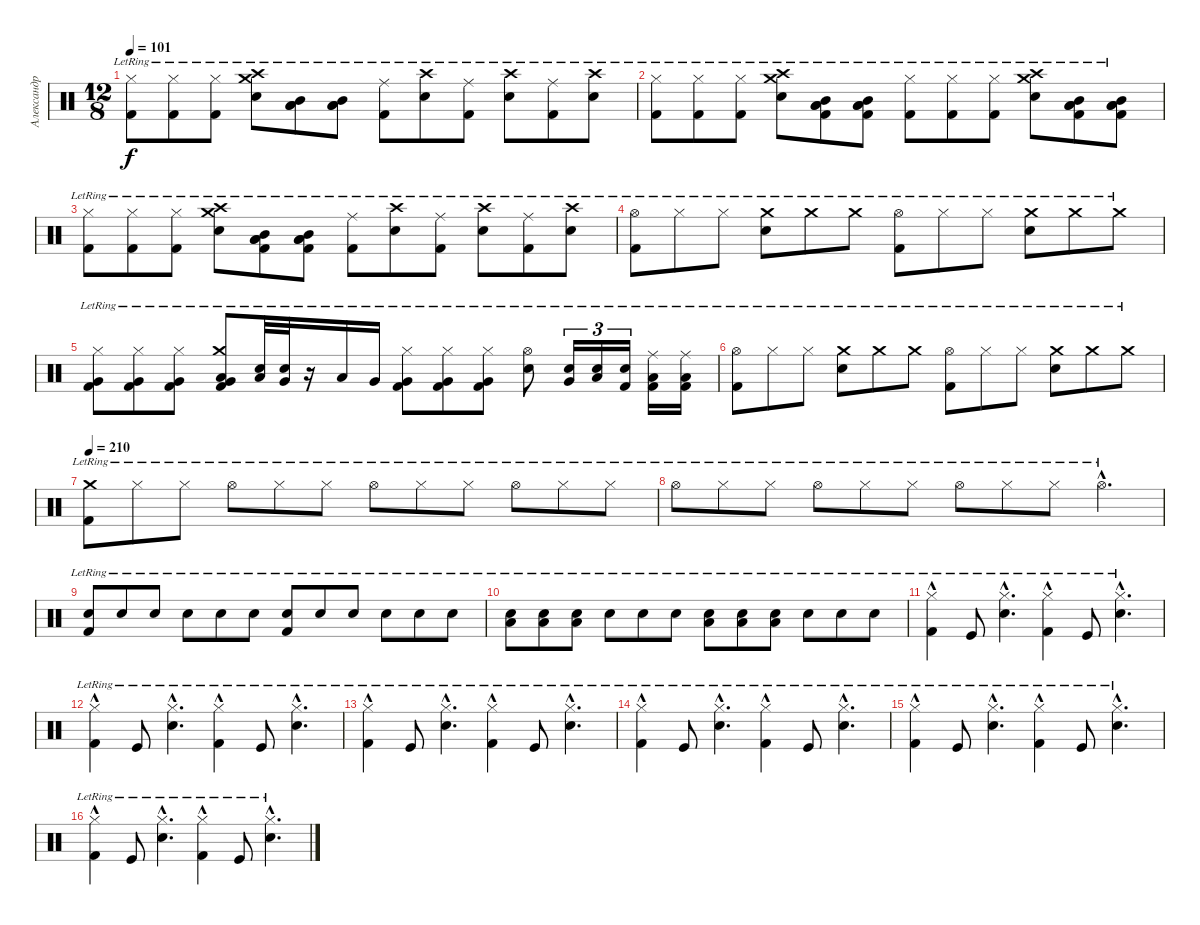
\track ("Александр Манякин" "Александр ") {instrument percussion}
\staff {score}
\articulation defaults
\ts (12 8)
\tempo 101
\clef neutral
\ks c
("Hi-Hat (closed)"{lr} "Kick (hit) 2"{lr}).8{dy f} ("Hi-Hat (closed)"{lr} "Kick (hit) 2"{lr}).8 ("Hi-Hat (closed)"{lr} "Kick (hit) 2"{lr}).8 ("Snare (hit) 2"{lr} "Crash high (hit)"{lr} "Crash medium (hit)"{lr}).8 ("Low Floor Tom (hit)"{lr} "Mid Tom (hit)"{lr} "Low Tom (hit)"{lr}).8 ("Mid Tom (hit)"{lr} "Low Tom (hit)"{lr} "Low Floor Tom (hit)"{lr}).8 ("Ride (middle)"{lr} "Kick (hit) 2"{lr}).8 ("Crash high (hit)"{lr} "Snare (hit) 2"{lr}).8 ("Ride (middle)"{lr} "Kick (hit) 2"{lr}).8 ("Crash high (hit)"{lr} "Snare (hit) 2"{lr}).8 ("Ride (middle)"{lr} "Kick (hit) 2"{lr}).8 ("Crash high (hit)"{lr} "Snare (hit) 2"{lr}).8 |
("Hi-Hat (closed)"{lr} "Kick (hit) 2"{lr}).8 ("Hi-Hat (closed)"{lr} "Kick (hit) 2"{lr}).8 ("Hi-Hat (closed)"{lr} "Kick (hit) 2"{lr}).8 ("Snare (hit) 2"{lr} "Crash high (hit)"{lr} "Crash medium (hit)"{lr}).8 ("Kick (hit) 2"{lr} "Low Tom (hit)"{lr} "Low Floor Tom (hit)"{lr} "Mid Tom (hit)"{lr}).8 ("Kick (hit) 2"{lr} "Mid Tom (hit)"{lr} "Low Floor Tom (hit)"{lr} "Low Tom (hit)"{lr}).8 ("Hi-Hat (closed)"{lr} "Kick (hit) 2"{lr}).8 ("Hi-Hat (closed)"{lr} "Kick (hit) 2"{lr}).8 ("Hi-Hat (closed)"{lr} "Kick (hit) 2"{lr}).8 ("Crash medium (hit)"{lr} "Crash high (hit)"{lr} "Snare (hit) 2"{lr}).8 ("Kick (hit) 2"{lr} "Mid Tom (hit)"{lr} "Low Tom (hit)"{lr} "Low Floor Tom (hit)"{lr}).8 ("Kick (hit) 2"{lr} "Mid Tom (hit)"{lr} "Low Tom (hit)"{lr} "Low Floor Tom (hit)"{lr}).8 |
("Hi-Hat (closed)"{lr} "Kick (hit) 2"{lr}).8 ("Hi-Hat (closed)"{lr} "Kick (hit) 2"{lr}).8 ("Hi-Hat (closed)"{lr} "Kick (hit) 2"{lr}).8 ("Snare (hit) 2"{lr} "Crash high (hit)"{lr} "Crash medium (hit)"{lr}).8 ("Kick (hit) 2"{lr} "Low Floor Tom (hit)"{lr} "Mid Tom (hit)"{lr} "Low Tom (hit)"{lr}).8 ("Kick (hit) 2"{lr} "Mid Tom (hit)"{lr} "Low Tom (hit)"{lr} "Low Floor Tom (hit)"{lr}).8 ("Ride (middle)"{lr} "Kick (hit) 2"{lr}).8 ("Crash high (hit)"{lr} "Snare (hit) 2"{lr}).8 ("Ride (middle)"{lr} "Kick (hit) 2"{lr}).8 ("Crash high (hit)"{lr} "Snare (hit) 2"{lr}).8 ("Ride (middle)"{lr} "Kick (hit) 2"{lr}).8 ("Crash high (hit)"{lr} "Snare (hit) 2"{lr}).8 |
("Hi-Hat (open)"{lr} "Kick (hit) 2"{lr}).8 "Hi-Hat (closed)"{lr}.8 "Hi-Hat (closed)"{lr}.8 ("Snare (hit) 2"{lr} "Crash medium (hit)"{lr}).8 "Crash medium (hit)"{lr}.8 "Crash medium (hit)"{lr}.8 ("Hi-Hat (open)"{lr} "Kick (hit) 2"{lr}).8 "Hi-Hat (closed)"{lr}.8 "Hi-Hat (closed)"{lr}.8 ("Snare (hit) 2"{lr} "Crash medium (hit)"{lr}).8 "Crash medium (hit)"{lr}.8 "Crash medium (hit)"{lr}.8 |
("Hi-Hat (closed)"{lr} "Kick (hit) 2"{lr} "Very Low Tom (hit)"{lr}).8 ("Hi-Hat (closed)"{lr} "Kick (hit) 2"{lr} "Very Low Tom (hit)"{lr}).8 ("Hi-Hat (closed)"{lr} "Kick (hit) 2"{lr} "Very Low Tom (hit)"{lr}).8 ("Crash medium (hit)"{lr} "Low Floor Tom (hit)"{lr} "Kick (hit) 2"{lr} "Very Low Tom (hit)"{lr}).8 ("Snare (hit) 2"{lr} "Low Tom (hit)"{lr}).32 ("Snare (hit) 2"{lr} "Very Low Tom (hit)"{lr}).32 r.16 "Low Floor Tom (hit)"{lr}.16 "Very Low Tom (hit)"{lr}.16 ("Hi-Hat (closed)"{lr} "Very Low Tom (hit)"{lr} "Kick (hit) 2"{lr}).8 ("Hi-Hat (closed)"{lr} "Very Low Tom (hit)"{lr} "Kick (hit) 2"{lr}).8 ("Hi-Hat (closed)"{lr} "Very Low Tom (hit)"{lr} "Kick (hit) 2"{lr}).8 ("Hi-Hat (open)"{lr} "Electric Snare (hit)"{lr}).8 ("Very Low Tom (hit)"{lr} "Snare (hit) 2"{lr}).16{tu (3 2)} ("Low Floor Tom (hit)"{lr} "Snare (hit) 2"{lr}).16{tu (3 2)} ("Kick (hit) 2"{lr} "Snare (hit) 2"{lr}).16{tu (3 2)} ("Kick (hit) 2"{lr} "Ride (middle)"{lr} "Low Floor Tom (hit)"{lr}).16 ("Kick (hit) 2"{lr} "Ride (middle)"{lr} "Low Floor Tom (hit)"{lr}).16 |
("Hi-Hat (open)"{lr} "Kick (hit) 2"{lr}).8 "Hi-Hat (closed)"{lr}.8 "Hi-Hat (closed)"{lr}.8 ("Snare (hit) 2"{lr} "Crash medium (hit)"{lr}).8 "Crash medium (hit)"{lr}.8 "Crash medium (hit)"{lr}.8 ("Hi-Hat (open)"{lr} "Kick (hit) 2"{lr}).8 "Hi-Hat (closed)"{lr}.8 "Hi-Hat (closed)"{lr}.8 ("Snare (hit) 2"{lr} "Crash medium (hit)"{lr}).8 "Crash medium (hit)"{lr}.8 "Crash medium (hit)"{lr}.8 |
\tempo 210
("Kick (hit) 2"{lr} "Crash medium (hit)"{lr}).8 "Hi-Hat (closed)"{lr}.8 "Hi-Hat (closed)"{lr}.8 "Hi-Hat (open)"{lr}.8 "Hi-Hat (closed)"{lr}.8 "Hi-Hat (closed)"{lr}.8 "Hi-Hat (open)"{lr}.8 "Hi-Hat (closed)"{lr}.8 "Hi-Hat (closed)"{lr}.8 "Hi-Hat (open)"{lr}.8 "Hi-Hat (closed)"{lr}.8 "Hi-Hat (closed)"{lr}.8 |
"Hi-Hat (open)"{lr}.8 "Hi-Hat (closed)"{lr}.8 "Hi-Hat (closed)"{lr}.8 "Hi-Hat (open)"{lr}.8 "Hi-Hat (closed)"{lr}.8 "Hi-Hat (closed)"{lr}.8 "Hi-Hat (open)"{lr}.8 "Hi-Hat (closed)"{lr}.8 "Hi-Hat (closed)"{lr}.8 "Hi-Hat (open)"{hac lr}.4{d} |
("Kick (hit) 2"{lr} "Snare (hit) 2"{lr}).8 "Snare (hit) 2"{lr}.8 "Snare (hit) 2"{lr}.8 "Snare (hit) 2"{lr}.8 "Snare (hit) 2"{lr}.8 "Snare (hit) 2"{lr}.8 ("Kick (hit) 2"{lr} "Snare (hit) 2"{lr}).8 "Snare (hit) 2"{lr}.8 "Snare (hit) 2"{lr}.8 "Snare (hit) 2"{lr}.8 "Snare (hit) 2"{lr}.8 "Snare (hit) 2"{lr}.8 |
("Electric Snare (hit)"{lr} "Low Tom (hit)"{lr}).8 ("Electric Snare (hit)"{lr} "Low Tom (hit)"{lr}).8 ("Electric Snare (hit)"{lr} "Low Tom (hit)"{lr}).8 "Electric Snare (hit)"{lr}.8 "Electric Snare (hit)"{lr}.8 "Electric Snare (hit)"{lr}.8 ("Electric Snare (hit)"{lr} "Low Tom (hit)"{lr}).8 ("Low Tom (hit)"{lr} "Electric Snare (hit)"{lr}).8 ("Low Tom (hit)"{lr} "Electric Snare (hit)"{lr}).8 "Snare (hit) 2"{lr}.8 "Snare (hit) 2"{lr}.8 "Snare (hit) 2"{lr}.8 |
("Hi-Hat (closed)"{hac lr} "Kick (hit) 2"{lr}).4 "Kick (hit)"{lr}.8 ("Hi-Hat (closed)"{hac lr} "Snare (hit) 2"{hac lr}).4{d} ("Hi-Hat (closed)"{hac lr} "Kick (hit) 2"{lr}).4 "Kick (hit)"{lr}.8 ("Hi-Hat (closed)"{hac lr} "Snare (hit) 2"{hac lr}).4{d} |
("Kick (hit) 2"{lr} "Hi-Hat (closed)"{hac lr}).4 "Kick (hit)"{lr}.8 ("Hi-Hat (closed)"{hac lr} "Snare (hit) 2"{hac lr}).4{d} ("Kick (hit) 2"{lr} "Hi-Hat (closed)"{hac lr}).4 "Kick (hit)"{lr}.8 ("Hi-Hat (closed)"{hac lr} "Snare (hit) 2"{hac lr}).4{d} |
("Kick (hit) 2"{lr} "Hi-Hat (closed)"{hac lr}).4 "Kick (hit)"{lr}.8 ("Hi-Hat (closed)"{hac lr} "Snare (hit) 2"{hac lr}).4{d} ("Kick (hit) 2"{lr} "Hi-Hat (closed)"{hac lr}).4 "Kick (hit)"{lr}.8 ("Hi-Hat (closed)"{hac lr} "Snare (hit) 2"{hac lr}).4{d} |
("Kick (hit) 2"{lr} "Hi-Hat (closed)"{hac lr}).4 "Kick (hit)"{lr}.8 ("Hi-Hat (closed)"{hac lr} "Snare (hit) 2"{hac lr}).4{d} ("Kick (hit) 2"{lr} "Hi-Hat (closed)"{hac lr}).4 "Kick (hit)"{lr}.8 ("Hi-Hat (closed)"{hac lr} "Snare (hit) 2"{hac lr}).4{d} |
("Kick (hit) 2"{lr} "Hi-Hat (closed)"{hac lr}).4 "Kick (hit)"{lr}.8 ("Hi-Hat (closed)"{hac lr} "Snare (hit) 2"{hac lr}).4{d} ("Hi-Hat (closed)"{hac lr} "Kick (hit) 2"{lr}).4 "Kick (hit)"{lr}.8 ("Hi-Hat (closed)"{hac lr} "Snare (hit) 2"{hac lr}).4{d} |
("Hi-Hat (closed)"{hac lr} "Kick (hit) 2"{lr}).4 "Kick (hit)"{lr}.8 ("Hi-Hat (closed)"{hac lr} "Snare (hit) 2"{hac lr}).4{d} ("Hi-Hat (closed)"{hac lr} "Kick (hit) 2"{lr}).4 "Kick (hit)"{lr}.8 ("Hi-Hat (closed)"{hac lr} "Snare (hit) 2"{hac lr}).4{d}
